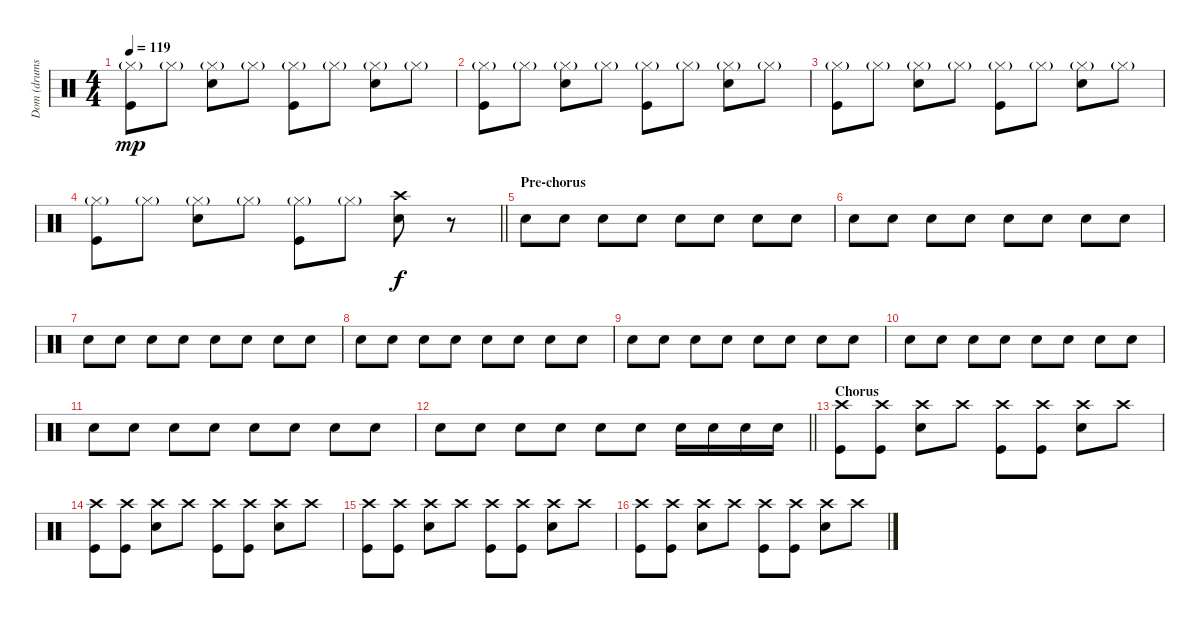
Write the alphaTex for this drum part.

\track ("Dom (drums)" "Dom (drums") {instrument percussion}
\staff {score}
\articulation defaults
\ts (4 4)
\tempo 119
\clef neutral
\ks c
("Hi-Hat (closed)"{g} "Kick (hit)").8{dy mp} "Hi-Hat (closed)"{g}.8 ("Hi-Hat (closed)"{g} "Snare (hit) 2").8 "Hi-Hat (closed)"{g}.8 ("Hi-Hat (closed)"{g} "Kick (hit)").8 "Hi-Hat (closed)"{g}.8 ("Hi-Hat (closed)"{g} "Snare (hit) 2").8 "Hi-Hat (closed)"{g}.8 |
("Hi-Hat (closed)"{g} "Kick (hit)").8 "Hi-Hat (closed)"{g}.8 ("Hi-Hat (closed)"{g} "Snare (hit) 2").8 "Hi-Hat (closed)"{g}.8 ("Hi-Hat (closed)"{g} "Kick (hit)").8 "Hi-Hat (closed)"{g}.8 ("Hi-Hat (closed)"{g} "Snare (hit) 2").8 "Hi-Hat (closed)"{g}.8 |
("Hi-Hat (closed)"{g} "Kick (hit)").8 "Hi-Hat (closed)"{g}.8 ("Hi-Hat (closed)"{g} "Snare (hit) 2").8 "Hi-Hat (closed)"{g}.8 ("Hi-Hat (closed)"{g} "Kick (hit)").8 "Hi-Hat (closed)"{g}.8 ("Hi-Hat (closed)"{g} "Snare (hit) 2").8 "Hi-Hat (closed)"{g}.8 |
\barLineRight lightlight
("Hi-Hat (closed)"{g} "Kick (hit)").8 "Hi-Hat (closed)"{g}.8 ("Hi-Hat (closed)"{g} "Snare (hit) 2").8 "Hi-Hat (closed)"{g}.8 ("Hi-Hat (closed)"{g} "Kick (hit)").8 "Hi-Hat (closed)"{g}.8 ("Crash high (hit)" "Snare (hit) 2").8{dy f} r.8 |
\section ("" "Pre-chorus")
"Snare (hit) 2".8 "Snare (hit) 2".8 "Snare (hit) 2".8 "Snare (hit) 2".8 "Snare (hit) 2".8 "Snare (hit) 2".8 "Snare (hit) 2".8 "Snare (hit) 2".8 |
"Snare (hit) 2".8 "Snare (hit) 2".8 "Snare (hit) 2".8 "Snare (hit) 2".8 "Snare (hit) 2".8 "Snare (hit) 2".8 "Snare (hit) 2".8 "Snare (hit) 2".8 |
"Snare (hit) 2".8 "Snare (hit) 2".8 "Snare (hit) 2".8 "Snare (hit) 2".8 "Snare (hit) 2".8 "Snare (hit) 2".8 "Snare (hit) 2".8 "Snare (hit) 2".8 |
"Snare (hit) 2".8 "Snare (hit) 2".8 "Snare (hit) 2".8 "Snare (hit) 2".8 "Snare (hit) 2".8 "Snare (hit) 2".8 "Snare (hit) 2".8 "Snare (hit) 2".8 |
"Snare (hit) 2".8 "Snare (hit) 2".8 "Snare (hit) 2".8 "Snare (hit) 2".8 "Snare (hit) 2".8 "Snare (hit) 2".8 "Snare (hit) 2".8 "Snare (hit) 2".8 |
"Snare (hit) 2".8 "Snare (hit) 2".8 "Snare (hit) 2".8 "Snare (hit) 2".8 "Snare (hit) 2".8 "Snare (hit) 2".8 "Snare (hit) 2".8 "Snare (hit) 2".8 |
"Snare (hit) 2".8 "Snare (hit) 2".8 "Snare (hit) 2".8 "Snare (hit) 2".8 "Snare (hit) 2".8 "Snare (hit) 2".8 "Snare (hit) 2".8 "Snare (hit) 2".8 |
\barLineRight lightlight "Snare (hit) 2".8 "Snare (hit) 2".8 "Snare (hit) 2".8 "Snare (hit) 2".8 "Snare (hit) 2".8 "Snare (hit) 2".8 "Snare (hit) 2".16 "Snare (hit) 2".16 "Snare (hit) 2".16 "Snare (hit) 2".16
|
\section ("" "Chorus")
("Crash high (hit)" "Kick (hit)").8 ("Crash high (hit)" "Kick (hit)").8 ("Crash high (hit)" "Snare (hit) 2").8 "Crash high (hit)".8 ("Crash high (hit)" "Kick (hit)").8 ("Crash high (hit)" "Kick (hit)").8 ("Crash high (hit)" "Snare (hit) 2").8 "Crash high (hit)".8 |
("Crash high (hit)" "Kick (hit)").8 ("Crash high (hit)" "Kick (hit)").8 ("Crash high (hit)" "Snare (hit) 2").8 "Crash high (hit)".8 ("Crash high (hit)" "Kick (hit)").8 ("Crash high (hit)" "Kick (hit)").8 ("Crash high (hit)" "Snare (hit) 2").8 "Crash high (hit)".8 |
("Crash high (hit)" "Kick (hit)").8 ("Crash high (hit)" "Kick (hit)").8 ("Crash high (hit)" "Snare (hit) 2").8 "Crash high (hit)".8 ("Crash high (hit)" "Kick (hit)").8 ("Crash high (hit)" "Kick (hit)").8 ("Crash high (hit)" "Snare (hit) 2").8 "Crash high (hit)".8 |
("Crash high (hit)" "Kick (hit)").8 ("Crash high (hit)" "Kick (hit)").8 ("Crash high (hit)" "Snare (hit) 2").8 "Crash high (hit)".8 ("Crash high (hit)" "Kick (hit)").8 ("Crash high (hit)" "Kick (hit)").8 ("Crash high (hit)" "Snare (hit) 2").8 "Crash high (hit)".8
